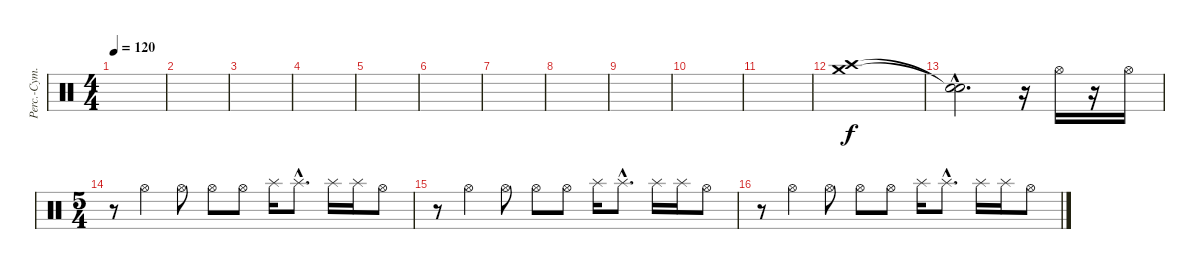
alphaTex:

\track ("Perc.-Cym. 2" "Perc.-Cym.") {instrument percussion}
\staff {score}
\articulation defaults
\ts (4 4)
\tempo 120
\clef neutral
\ks c
|
|
|
|
|
|
|
|
|
|
|
("Crash high (hit)" "Crash medium (hit)").1 |
("Snare (hit)"{hac t} "Snare (hit)"{hac t}).2{d} r.16 "Hi-Hat (open)".16 r.16 "Hi-Hat (open)".16 |
\ts (5 4)
r.8 "Hi-Hat (open)".4 "Hi-Hat (open)".8 "Hi-Hat (open)".8 "Hi-Hat (open)".8 "Splash (hit)".16 "Splash (hit)"{hac}.8{d} "Splash (hit)".16 "Splash (hit)".16 "Hi-Hat (open)".8 |
r.8 "Hi-Hat (open)".4 "Hi-Hat (open)".8 "Hi-Hat (open)".8 "Hi-Hat (open)".8 "Splash (hit)".16 "Splash (hit)"{hac}.8{d} "Splash (hit)".16 "Splash (hit)".16 "Hi-Hat (open)".8 |
r.8 "Hi-Hat (open)".4 "Hi-Hat (open)".8 "Hi-Hat (open)".8 "Hi-Hat (open)".8 "Splash (hit)".16 "Splash (hit)"{hac}.8{d} "Splash (hit)".16 "Splash (hit)".16 "Hi-Hat (open)".8
